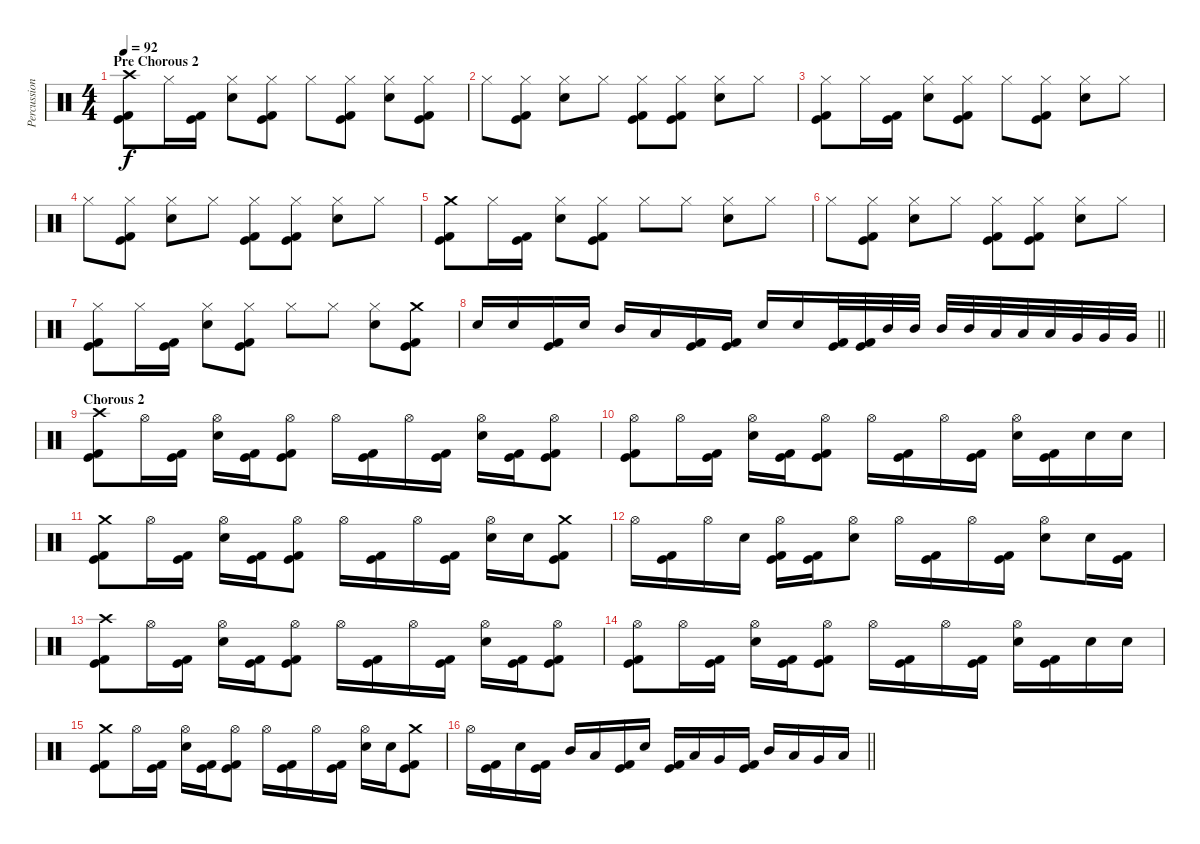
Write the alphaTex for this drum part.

\track ("Percussion" "Percussion") {instrument percussion}
\staff {score}
\articulation defaults
\ts (4 4)
\section ("" "Pre Chorous 2")
\tempo 92
\clef neutral
\ks c
("Crash high (hit)" "Kick (hit)" "Kick (hit) 2").8{dy f} "Hi-Hat (closed)".16 ("Kick (hit)" "Kick (hit) 2").16 ("Hi-Hat (closed)" "Electric Snare (hit)").8 ("Hi-Hat (closed)" "Kick (hit)" "Kick (hit) 2").8 "Hi-Hat (closed)".8 ("Hi-Hat (closed)" "Kick (hit)" "Kick (hit) 2").8 ("Hi-Hat (closed)" "Electric Snare (hit)").8 ("Hi-Hat (closed)" "Kick (hit)" "Kick (hit) 2").8 |
"Hi-Hat (closed)".8 ("Hi-Hat (closed)" "Kick (hit)" "Kick (hit) 2").8 ("Hi-Hat (closed)" "Electric Snare (hit)").8 "Hi-Hat (closed)".8 ("Hi-Hat (closed)" "Kick (hit)" "Kick (hit) 2").8 ("Hi-Hat (closed)" "Kick (hit)" "Kick (hit) 2").8 ("Hi-Hat (closed)" "Electric Snare (hit)").8 "Hi-Hat (closed)".8 |
("Hi-Hat (closed)" "Kick (hit)" "Kick (hit) 2").8 "Hi-Hat (closed)".16 ("Kick (hit)" "Kick (hit) 2").16 ("Hi-Hat (closed)" "Electric Snare (hit)").8 ("Hi-Hat (closed)" "Kick (hit)" "Kick (hit) 2").8 "Hi-Hat (closed)".8 ("Hi-Hat (closed)" "Kick (hit)" "Kick (hit) 2").8 ("Hi-Hat (closed)" "Electric Snare (hit)").8 "Hi-Hat (closed)".8 |
"Hi-Hat (closed)".8 ("Hi-Hat (closed)" "Kick (hit)" "Kick (hit) 2").8 ("Hi-Hat (closed)" "Electric Snare (hit)").8 "Hi-Hat (closed)".8 ("Hi-Hat (closed)" "Kick (hit)" "Kick (hit) 2").8 ("Hi-Hat (closed)" "Kick (hit)" "Kick (hit) 2").8 ("Hi-Hat (closed)" "Electric Snare (hit)").8 "Hi-Hat (closed)".8 |
("Crash medium (hit)" "Kick (hit)" "Kick (hit) 2").8 "Hi-Hat (closed)".16 ("Kick (hit)" "Kick (hit) 2").16 ("Hi-Hat (closed)" "Electric Snare (hit)").8 ("Hi-Hat (closed)" "Kick (hit)" "Kick (hit) 2").8 "Hi-Hat (closed)".8 "Hi-Hat (closed)".8 ("Hi-Hat (closed)" "Electric Snare (hit)").8 "Hi-Hat (closed)".8 |
"Hi-Hat (closed)".8 ("Hi-Hat (closed)" "Kick (hit)" "Kick (hit) 2").8 ("Hi-Hat (closed)" "Electric Snare (hit)").8 "Hi-Hat (closed)".8 ("Hi-Hat (closed)" "Kick (hit)" "Kick (hit) 2").8 ("Hi-Hat (closed)" "Kick (hit)" "Kick (hit) 2").8 ("Hi-Hat (closed)" "Electric Snare (hit)").8 "Hi-Hat (closed)".8 |
("Hi-Hat (closed)" "Kick (hit)" "Kick (hit) 2").8 "Hi-Hat (closed)".16 ("Kick (hit)" "Kick (hit) 2").16 ("Hi-Hat (closed)" "Electric Snare (hit)").8 ("Hi-Hat (closed)" "Kick (hit)" "Kick (hit) 2").8 "Hi-Hat (closed)".8 "Hi-Hat (closed)".8 ("Hi-Hat (closed)" "Electric Snare (hit)").8 ("Crash medium (hit)" "Kick (hit)" "Kick (hit) 2").8 |
\barLineRight lightlight "Electric Snare (hit)".16 "Electric Snare (hit)".16
("Kick (hit)" "Kick (hit) 2").16 "Electric Snare (hit)".16 "Mid Tom (hit)".16 "Low Tom (hit)".16 ("Kick (hit)" "Kick (hit) 2").16 ("Kick (hit)" "Kick (hit) 2").16 "Electric Snare (hit)".16 "Electric Snare (hit)".16 ("Kick (hit)" "Kick (hit) 2").32 ("Kick (hit)" "Kick (hit) 2").32 "Mid Tom (hit)".32 "Mid Tom (hit)".32 "Mid Tom (hit)".32 "Mid Tom (hit)".32 "Low Tom (hit)".32 "Low Tom (hit)".32 "Low Tom (hit)".32 "Very Low Tom (hit)".32 "Very Low Tom (hit)".32 "Very Low Tom (hit)".32 |
\section ("" "Chorous 2")
("Crash high (hit)" "Kick (hit)" "Kick (hit) 2").8 "Hi-Hat (open)".16 ("Kick (hit)" "Kick (hit) 2").16 ("Hi-Hat (open)" "Electric Snare (hit)").16 ("Kick (hit)" "Kick (hit) 2").16 ("Hi-Hat (open)" "Kick (hit)" "Kick (hit) 2").8 "Hi-Hat (open)".16 ("Kick (hit)" "Kick (hit) 2").16 "Hi-Hat (open)".16 ("Kick (hit)" "Kick (hit) 2").16 ("Hi-Hat (open)" "Electric Snare (hit)").16 ("Kick (hit)" "Kick (hit) 2").16 ("Hi-Hat (open)" "Kick (hit)" "Kick (hit) 2").8 |
("Hi-Hat (open)" "Kick (hit)" "Kick (hit) 2").8 "Hi-Hat (open)".16 ("Kick (hit)" "Kick (hit) 2").16 ("Hi-Hat (open)" "Electric Snare (hit)").16 ("Kick (hit)" "Kick (hit) 2").16 ("Hi-Hat (open)" "Kick (hit)" "Kick (hit) 2").8 "Hi-Hat (open)".16 ("Kick (hit)" "Kick (hit) 2").16 "Hi-Hat (open)".16 ("Kick (hit)" "Kick (hit) 2").16 ("Hi-Hat (open)" "Electric Snare (hit)").16 ("Kick (hit)" "Kick (hit) 2").16 "Electric Snare (hit)".16 "Electric Snare (hit)".16 |
("Crash medium (hit)" "Kick (hit)" "Kick (hit) 2").8 "Hi-Hat (open)".16 ("Kick (hit)" "Kick (hit) 2").16 ("Hi-Hat (open)" "Electric Snare (hit)").16 ("Kick (hit)" "Kick (hit) 2").16 ("Hi-Hat (open)" "Kick (hit)" "Kick (hit) 2").8 "Hi-Hat (open)".16 ("Kick (hit)" "Kick (hit) 2").16 "Hi-Hat (open)".16 ("Kick (hit)" "Kick (hit) 2").16 ("Hi-Hat (open)" "Electric Snare (hit)").16 "Electric Snare (hit)".16 ("Crash medium (hit)" "Kick (hit)" "Kick (hit) 2").8 |
"Hi-Hat (open)".16 ("Kick (hit)" "Kick (hit) 2").16 "Hi-Hat (open)".16 "Electric Snare (hit)".16 ("Hi-Hat (open)" "Kick (hit)" "Kick (hit) 2").16 ("Kick (hit)" "Kick (hit) 2").16 ("Hi-Hat (open)" "Electric Snare (hit)").8 "Hi-Hat (open)".16 ("Kick (hit)" "Kick (hit) 2").16 "Hi-Hat (open)".16 ("Kick (hit)" "Kick (hit) 2").16 ("Hi-Hat (open)" "Electric Snare (hit)").8 "Electric Snare (hit)".16 ("Kick (hit)" "Kick (hit) 2").16 |
("Crash high (hit)" "Kick (hit)" "Kick (hit) 2").8 "Hi-Hat (open)".16 ("Kick (hit)" "Kick (hit) 2").16 ("Hi-Hat (open)" "Electric Snare (hit)").16 ("Kick (hit)" "Kick (hit) 2").16 ("Hi-Hat (open)" "Kick (hit)" "Kick (hit) 2").8 "Hi-Hat (open)".16 ("Kick (hit)" "Kick (hit) 2").16 "Hi-Hat (open)".16 ("Kick (hit)" "Kick (hit) 2").16 ("Hi-Hat (open)" "Electric Snare (hit)").16 ("Kick (hit)" "Kick (hit) 2").16 ("Hi-Hat (open)" "Kick (hit)" "Kick (hit) 2").8 |
("Hi-Hat (open)" "Kick (hit)" "Kick (hit) 2").8 "Hi-Hat (open)".16 ("Kick (hit)" "Kick (hit) 2").16 ("Hi-Hat (open)" "Electric Snare (hit)").16 ("Kick (hit)" "Kick (hit) 2").16 ("Hi-Hat (open)" "Kick (hit)" "Kick (hit) 2").8 "Hi-Hat (open)".16 ("Kick (hit)" "Kick (hit) 2").16 "Hi-Hat (open)".16 ("Kick (hit)" "Kick (hit) 2").16 ("Hi-Hat (open)" "Electric Snare (hit)").16 ("Kick (hit)" "Kick (hit) 2").16 "Electric Snare (hit)".16 "Electric Snare (hit)".16 |
("Crash medium (hit)" "Kick (hit)" "Kick (hit) 2").8 "Hi-Hat (open)".16 ("Kick (hit)" "Kick (hit) 2").16 ("Hi-Hat (open)" "Electric Snare (hit)").16 ("Kick (hit)" "Kick (hit) 2").16 ("Hi-Hat (open)" "Kick (hit)" "Kick (hit) 2").8 "Hi-Hat (open)".16 ("Kick (hit)" "Kick (hit) 2").16 "Hi-Hat (open)".16 ("Kick (hit)" "Kick (hit) 2").16 ("Hi-Hat (open)" "Electric Snare (hit)").16 "Electric Snare (hit)".16 ("Crash medium (hit)" "Kick (hit)" "Kick (hit) 2").8 |
\barLineRight lightlight "Hi-Hat (open)".16
("Kick (hit)" "Kick (hit) 2").16 "Electric Snare (hit)".16 ("Kick (hit)" "Kick (hit) 2").16 "Mid Tom (hit)".16 "Low Tom (hit)".16 ("Kick (hit)" "Kick (hit) 2").16 "Electric Snare (hit)".16 ("Kick (hit)" "Kick (hit) 2").16 "Low Tom (hit)".16 "Very Low Tom (hit)".16 ("Kick (hit)" "Kick (hit) 2").16 "Mid Tom (hit)".16 "Low Tom (hit)".16 "Very Low Tom (hit)".16 "Low Floor Tom (hit)".16
